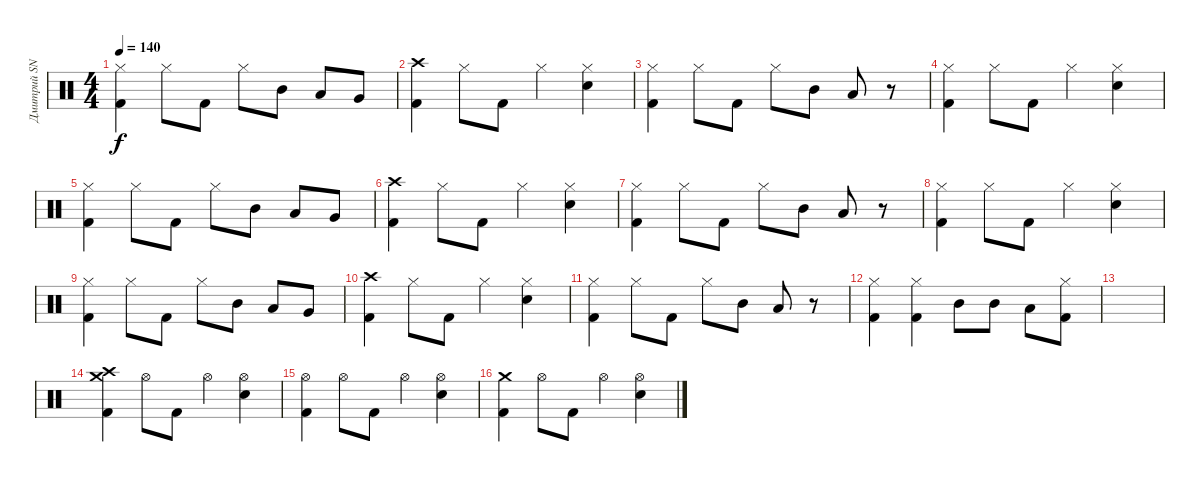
\track ("Дмитрий SNAKE Хакимов" "Дмитрий SN") {instrument percussion}
\staff {score}
\articulation defaults
\ts (4 4)
\tempo 140
\clef neutral
\ks c
("Hi-Hat (closed)" "Kick (hit) 2").4{dy f} "Hi-Hat (closed)".8 "Kick (hit) 2".8 "Hi-Hat (closed)".8 "Mid Tom (hit)".8 "Low Tom (hit)".8 "Very Low Tom (hit)".8 |
("Crash high (hit)" "Kick (hit) 2").4 "Hi-Hat (closed)".8 "Kick (hit) 2".8 "Hi-Hat (closed)".4 ("Hi-Hat (closed)" "Snare (hit) 2").4 |
("Hi-Hat (closed)" "Kick (hit) 2").4 "Hi-Hat (closed)".8 "Kick (hit) 2".8 "Hi-Hat (closed)".8 "Mid Tom (hit)".8 "Low Tom (hit)".8 r.8 |
("Hi-Hat (closed)" "Kick (hit) 2").4 "Hi-Hat (closed)".8 "Kick (hit) 2".8 "Hi-Hat (closed)".4 ("Hi-Hat (closed)" "Snare (hit) 2").4 |
("Hi-Hat (closed)" "Kick (hit) 2").4 "Hi-Hat (closed)".8 "Kick (hit) 2".8 "Hi-Hat (closed)".8 "Mid Tom (hit)".8 "Low Tom (hit)".8 "Very Low Tom (hit)".8 |
("Crash high (hit)" "Kick (hit) 2").4 "Hi-Hat (closed)".8 "Kick (hit) 2".8 "Hi-Hat (closed)".4 ("Hi-Hat (closed)" "Snare (hit) 2").4 |
("Hi-Hat (closed)" "Kick (hit) 2").4 "Hi-Hat (closed)".8 "Kick (hit) 2".8 "Hi-Hat (closed)".8 "Mid Tom (hit)".8 "Low Tom (hit)".8 r.8 |
("Hi-Hat (closed)" "Kick (hit) 2").4 "Hi-Hat (closed)".8 "Kick (hit) 2".8 "Hi-Hat (closed)".4 ("Hi-Hat (closed)" "Snare (hit) 2").4 |
("Hi-Hat (closed)" "Kick (hit) 2").4 "Hi-Hat (closed)".8 "Kick (hit) 2".8 "Hi-Hat (closed)".8 "Mid Tom (hit)".8 "Low Tom (hit)".8 "Very Low Tom (hit)".8 |
("Crash high (hit)" "Kick (hit) 2").4 "Hi-Hat (closed)".8 "Kick (hit) 2".8 "Hi-Hat (closed)".4 ("Hi-Hat (closed)" "Snare (hit) 2").4 |
("Hi-Hat (closed)" "Kick (hit) 2").4 "Hi-Hat (closed)".8 "Kick (hit) 2".8 "Hi-Hat (closed)".8 "Mid Tom (hit)".8 "Low Tom (hit)".8 r.8 |
("Hi-Hat (closed)" "Kick (hit) 2").4 ("Hi-Hat (closed)" "Kick (hit) 2").4 "Mid Tom (hit)".8 "Mid Tom (hit)".8 "Low Tom (hit)".8 ("Hi-Hat (closed)" "Kick (hit) 2").8 |
|
("Crash high (hit)" "Crash medium (hit)" "Kick (hit) 2").4 "Hi-Hat (open)".8 "Kick (hit) 2".8 "Hi-Hat (open)".4 ("Hi-Hat (open)" "Snare (hit) 2").4 |
("Hi-Hat (open)" "Kick (hit) 2").4 "Hi-Hat (open)".8 "Kick (hit) 2".8 "Hi-Hat (open)".4 ("Hi-Hat (open)" "Snare (hit) 2").4 |
("Crash medium (hit)" "Kick (hit) 2").4 "Hi-Hat (open)".8 "Kick (hit) 2".8 "Hi-Hat (open)".4 ("Hi-Hat (open)" "Snare (hit) 2").4
